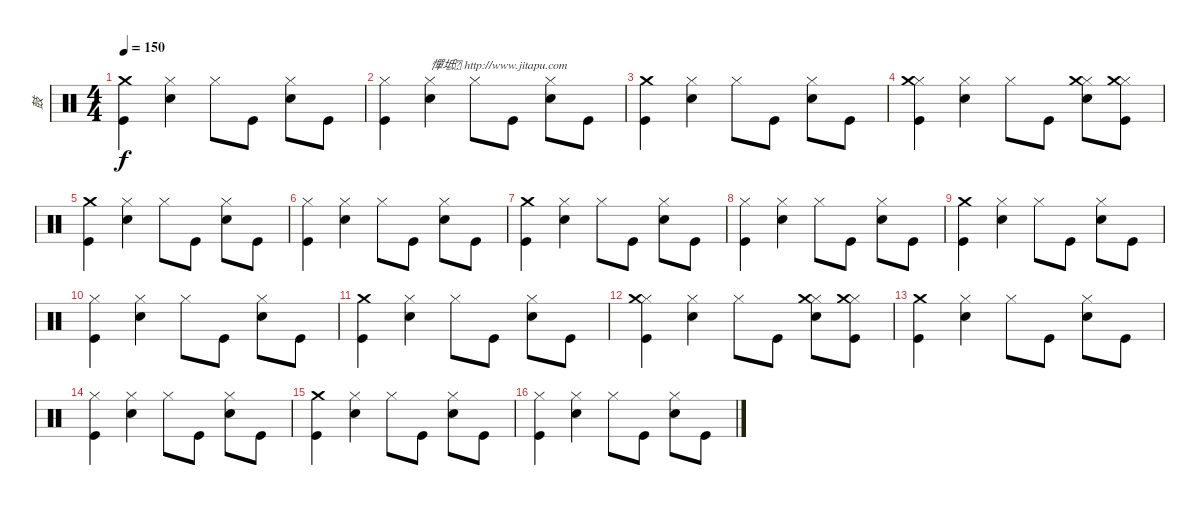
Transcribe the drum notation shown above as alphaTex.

\track ("鼓" "鼓") {instrument percussion}
\staff {score}
\articulation defaults
\ts (4 4)
\tempo 150
\clef neutral
\ks c
("Kick (hit)" "Crash medium (hit)").4{dy f} ("Snare (hit) 2" "Hi-Hat (closed)").4 "Hi-Hat (closed)".8 "Kick (hit)".8 ("Snare (hit) 2" "Hi-Hat (closed)").8 "Kick (hit)".8 |
("Kick (hit)" "Hi-Hat (closed)").4 ("Snare (hit) 2" "Hi-Hat (closed)").4{txt "憚坻 http://www.jitapu.com"} "Hi-Hat (closed)".8 "Kick (hit)".8 ("Snare (hit) 2" "Hi-Hat (closed)").8 "Kick (hit)".8 |
("Kick (hit)" "Crash medium (hit)").4 ("Snare (hit) 2" "Hi-Hat (closed)").4 "Hi-Hat (closed)".8 "Kick (hit)".8 ("Snare (hit) 2" "Hi-Hat (closed)").8 "Kick (hit)".8 |
("Kick (hit)" "Hi-Hat (closed)" "Crash medium (hit)").4 ("Snare (hit) 2" "Hi-Hat (closed)").4 "Hi-Hat (closed)".8 "Kick (hit)".8 ("Snare (hit) 2" "Hi-Hat (closed)" "Crash medium (hit)").8 ("Kick (hit)" "Hi-Hat (closed)" "Crash medium (hit)").8 |
("Kick (hit)" "Crash medium (hit)").4 ("Snare (hit) 2" "Hi-Hat (closed)").4 "Hi-Hat (closed)".8 "Kick (hit)".8 ("Snare (hit) 2" "Hi-Hat (closed)").8 "Kick (hit)".8 |
("Kick (hit)" "Hi-Hat (closed)").4 ("Snare (hit) 2" "Hi-Hat (closed)").4 "Hi-Hat (closed)".8 "Kick (hit)".8 ("Snare (hit) 2" "Hi-Hat (closed)").8 "Kick (hit)".8 |
("Kick (hit)" "Crash medium (hit)").4 ("Snare (hit) 2" "Hi-Hat (closed)").4 "Hi-Hat (closed)".8 "Kick (hit)".8 ("Snare (hit) 2" "Hi-Hat (closed)").8 "Kick (hit)".8 |
("Kick (hit)" "Hi-Hat (closed)").4 ("Snare (hit) 2" "Hi-Hat (closed)").4 "Hi-Hat (closed)".8 "Kick (hit)".8 ("Snare (hit) 2" "Hi-Hat (closed)").8 "Kick (hit)".8 |
("Kick (hit)" "Crash medium (hit)").4 ("Snare (hit) 2" "Hi-Hat (closed)").4 "Hi-Hat (closed)".8 "Kick (hit)".8 ("Snare (hit) 2" "Hi-Hat (closed)").8 "Kick (hit)".8 |
("Kick (hit)" "Hi-Hat (closed)").4 ("Snare (hit) 2" "Hi-Hat (closed)").4 "Hi-Hat (closed)".8 "Kick (hit)".8 ("Snare (hit) 2" "Hi-Hat (closed)").8 "Kick (hit)".8 |
("Kick (hit)" "Crash medium (hit)").4 ("Snare (hit) 2" "Hi-Hat (closed)").4 "Hi-Hat (closed)".8 "Kick (hit)".8 ("Snare (hit) 2" "Hi-Hat (closed)").8 "Kick (hit)".8 |
("Kick (hit)" "Hi-Hat (closed)" "Crash medium (hit)").4 ("Snare (hit) 2" "Hi-Hat (closed)").4 "Hi-Hat (closed)".8 "Kick (hit)".8 ("Snare (hit) 2" "Hi-Hat (closed)" "Crash medium (hit)").8 ("Kick (hit)" "Hi-Hat (closed)" "Crash medium (hit)").8 |
("Kick (hit)" "Crash medium (hit)").4 ("Snare (hit) 2" "Hi-Hat (closed)").4 "Hi-Hat (closed)".8 "Kick (hit)".8 ("Snare (hit) 2" "Hi-Hat (closed)").8 "Kick (hit)".8 |
("Kick (hit)" "Hi-Hat (closed)").4 ("Snare (hit) 2" "Hi-Hat (closed)").4 "Hi-Hat (closed)".8 "Kick (hit)".8 ("Snare (hit) 2" "Hi-Hat (closed)").8 "Kick (hit)".8 |
("Kick (hit)" "Crash medium (hit)").4 ("Snare (hit) 2" "Hi-Hat (closed)").4 "Hi-Hat (closed)".8 "Kick (hit)".8 ("Snare (hit) 2" "Hi-Hat (closed)").8 "Kick (hit)".8 |
("Kick (hit)" "Hi-Hat (closed)").4 ("Snare (hit) 2" "Hi-Hat (closed)").4 "Hi-Hat (closed)".8 "Kick (hit)".8 ("Snare (hit) 2" "Hi-Hat (closed)").8 "Kick (hit)".8
